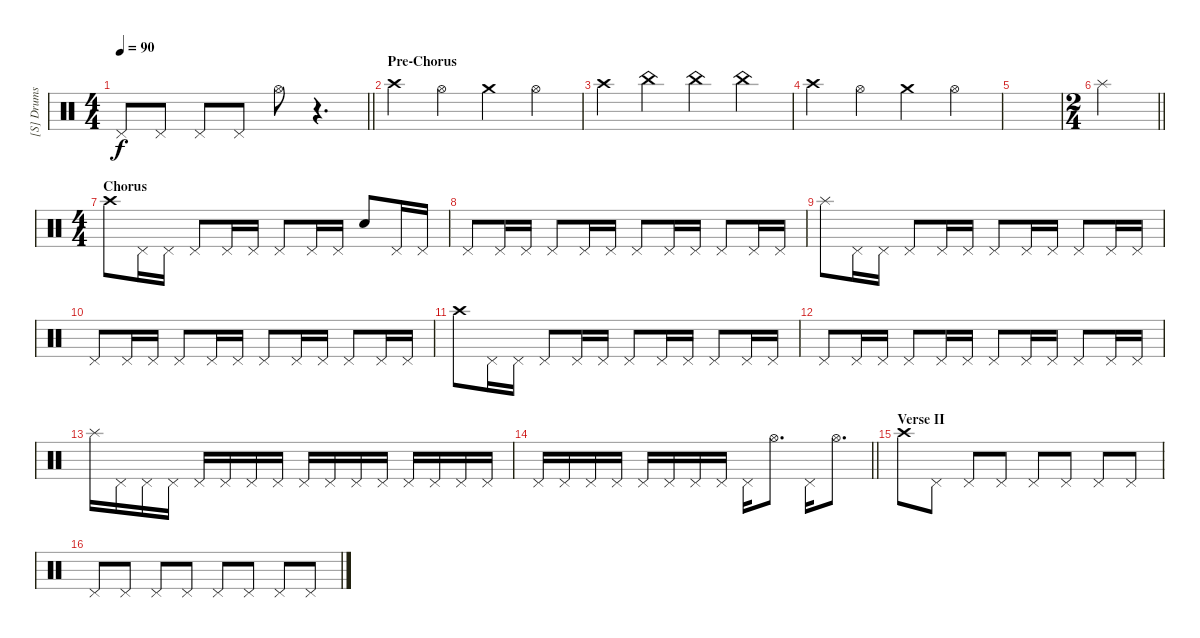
\track ("[S] Drums II (Stewart)" "[S] Drums ") {instrument percussion}
\staff {score}
\articulation defaults
\ts (4 4)
\tempo 90
\clef neutral
\barLineRight lightlight
\ks c "Pedal Hi-Hat (hit)".8{dy f} "Pedal Hi-Hat (hit)".8 "Pedal Hi-Hat (hit)".8 "Pedal Hi-Hat (hit)".8 "Hi-Hat (open)".8
r.4{d} |
\section ("" "Pre-Chorus")
"Crash high (hit)".4 "Hi-Hat (open)".4 "Crash medium (hit)".4 "Hi-Hat (open)".4 |
"Crash high (hit)".4 "China (hit)".4 "China (hit)".4 "China (hit)".4 |
"Crash high (hit)".4 "Hi-Hat (open)".4 "Crash medium (hit)".4 "Hi-Hat (open)".4 |
|
\ts (2 4)
\barLineRight lightlight "Splash (hit)".2
|
\ts (4 4)
\section ("" "Chorus")
"Crash high (hit)".8 "Pedal Hi-Hat (hit)".16 "Pedal Hi-Hat (hit)".16 "Pedal Hi-Hat (hit)".8 "Pedal Hi-Hat (hit)".16 "Pedal Hi-Hat (hit)".16 "Pedal Hi-Hat (hit)".8 "Pedal Hi-Hat (hit)".16 "Pedal Hi-Hat (hit)".16 "Snare (hit)".8 "Pedal Hi-Hat (hit)".16 "Pedal Hi-Hat (hit)".16 |
"Pedal Hi-Hat (hit)".8 "Pedal Hi-Hat (hit)".16 "Pedal Hi-Hat (hit)".16 "Pedal Hi-Hat (hit)".8 "Pedal Hi-Hat (hit)".16 "Pedal Hi-Hat (hit)".16 "Pedal Hi-Hat (hit)".8 "Pedal Hi-Hat (hit)".16 "Pedal Hi-Hat (hit)".16 "Pedal Hi-Hat (hit)".8 "Pedal Hi-Hat (hit)".16 "Pedal Hi-Hat (hit)".16 |
"Splash (hit)".8 "Pedal Hi-Hat (hit)".16 "Pedal Hi-Hat (hit)".16 "Pedal Hi-Hat (hit)".8 "Pedal Hi-Hat (hit)".16 "Pedal Hi-Hat (hit)".16 "Pedal Hi-Hat (hit)".8 "Pedal Hi-Hat (hit)".16 "Pedal Hi-Hat (hit)".16 "Pedal Hi-Hat (hit)".8 "Pedal Hi-Hat (hit)".16 "Pedal Hi-Hat (hit)".16 |
"Pedal Hi-Hat (hit)".8 "Pedal Hi-Hat (hit)".16 "Pedal Hi-Hat (hit)".16 "Pedal Hi-Hat (hit)".8 "Pedal Hi-Hat (hit)".16 "Pedal Hi-Hat (hit)".16 "Pedal Hi-Hat (hit)".8 "Pedal Hi-Hat (hit)".16 "Pedal Hi-Hat (hit)".16 "Pedal Hi-Hat (hit)".8 "Pedal Hi-Hat (hit)".16 "Pedal Hi-Hat (hit)".16 |
"Crash high (hit)".8 "Pedal Hi-Hat (hit)".16 "Pedal Hi-Hat (hit)".16 "Pedal Hi-Hat (hit)".8 "Pedal Hi-Hat (hit)".16 "Pedal Hi-Hat (hit)".16 "Pedal Hi-Hat (hit)".8 "Pedal Hi-Hat (hit)".16 "Pedal Hi-Hat (hit)".16 "Pedal Hi-Hat (hit)".8 "Pedal Hi-Hat (hit)".16 "Pedal Hi-Hat (hit)".16 |
"Pedal Hi-Hat (hit)".8 "Pedal Hi-Hat (hit)".16 "Pedal Hi-Hat (hit)".16 "Pedal Hi-Hat (hit)".8 "Pedal Hi-Hat (hit)".16 "Pedal Hi-Hat (hit)".16 "Pedal Hi-Hat (hit)".8 "Pedal Hi-Hat (hit)".16 "Pedal Hi-Hat (hit)".16 "Pedal Hi-Hat (hit)".8 "Pedal Hi-Hat (hit)".16 "Pedal Hi-Hat (hit)".16 |
"Splash (hit)".16 "Pedal Hi-Hat (hit)".16 "Pedal Hi-Hat (hit)".16 "Pedal Hi-Hat (hit)".16 "Pedal Hi-Hat (hit)".16 "Pedal Hi-Hat (hit)".16 "Pedal Hi-Hat (hit)".16 "Pedal Hi-Hat (hit)".16 "Pedal Hi-Hat (hit)".16 "Pedal Hi-Hat (hit)".16 "Pedal Hi-Hat (hit)".16 "Pedal Hi-Hat (hit)".16 "Pedal Hi-Hat (hit)".16 "Pedal Hi-Hat (hit)".16 "Pedal Hi-Hat (hit)".16 "Pedal Hi-Hat (hit)".16 |
\barLineRight lightlight "Pedal Hi-Hat (hit)".16 "Pedal Hi-Hat (hit)".16 "Pedal Hi-Hat (hit)".16 "Pedal Hi-Hat (hit)".16 "Pedal Hi-Hat (hit)".16 "Pedal Hi-Hat (hit)".16 "Pedal Hi-Hat (hit)".16 "Pedal Hi-Hat (hit)".16 "Pedal Hi-Hat (hit)".16 "Hi-Hat (open)".8{d} "Pedal Hi-Hat (hit)".16 "Hi-Hat (open)".8{d}
|
\section ("" "Verse II")
"Crash high (hit)".8 "Pedal Hi-Hat (hit)".8 "Pedal Hi-Hat (hit)".8 "Pedal Hi-Hat (hit)".8 "Pedal Hi-Hat (hit)".8 "Pedal Hi-Hat (hit)".8 "Pedal Hi-Hat (hit)".8 "Pedal Hi-Hat (hit)".8 |
"Pedal Hi-Hat (hit)".8 "Pedal Hi-Hat (hit)".8 "Pedal Hi-Hat (hit)".8 "Pedal Hi-Hat (hit)".8 "Pedal Hi-Hat (hit)".8 "Pedal Hi-Hat (hit)".8 "Pedal Hi-Hat (hit)".8 "Pedal Hi-Hat (hit)".8
